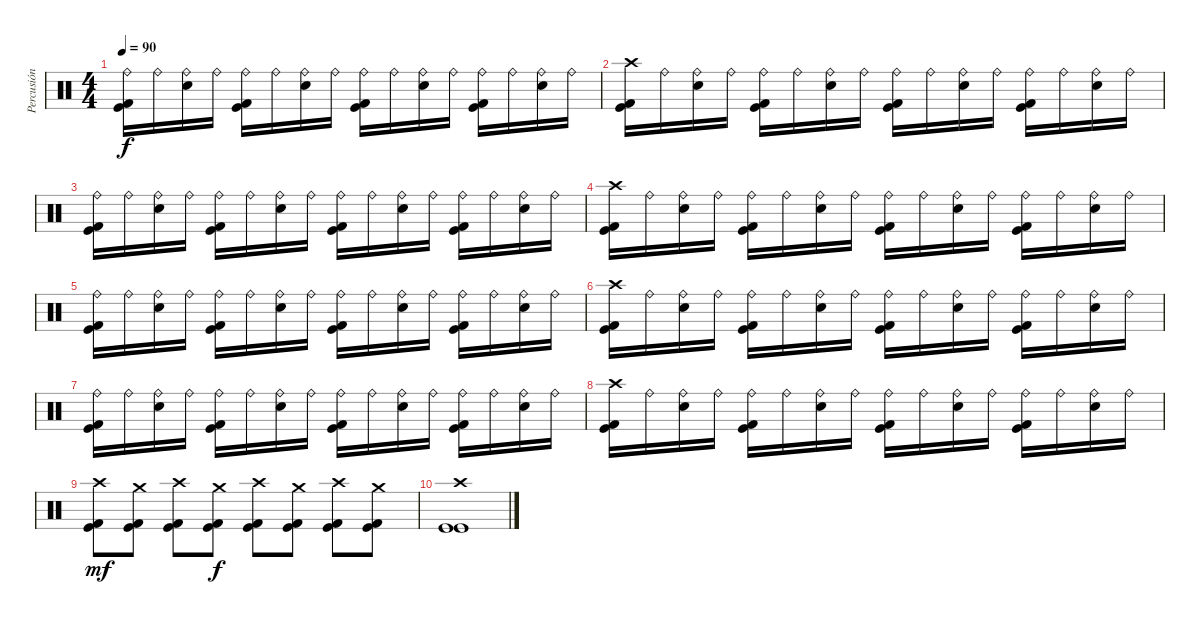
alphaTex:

\track ("Percusión" "Percusión") {instrument percussion}
\staff {score}
\articulation defaults
\ts (4 4)
\tempo 90
\clef neutral
\ks c
("Kick (hit) 2" "Ride (bell)" "Kick (hit)").16{dy f} "Ride (bell)".16 ("Snare (hit) 2" "Ride (bell)").16 "Ride (bell)".16 ("Kick (hit) 2" "Ride (bell)" "Kick (hit)").16 "Ride (bell)".16 ("Snare (hit) 2" "Ride (bell)").16 "Ride (bell)".16 ("Kick (hit) 2" "Ride (bell)" "Kick (hit)").16 "Ride (bell)".16 ("Snare (hit) 2" "Ride (bell)").16 "Ride (bell)".16 ("Kick (hit) 2" "Ride (bell)" "Kick (hit)").16 "Ride (bell)".16 ("Snare (hit) 2" "Ride (bell)").16 "Ride (bell)".16 |
("Kick (hit) 2" "Crash high (hit)" "Kick (hit)").16 "Ride (bell)".16 ("Snare (hit) 2" "Ride (bell)").16 "Ride (bell)".16 ("Kick (hit) 2" "Ride (bell)" "Kick (hit)").16 "Ride (bell)".16 ("Snare (hit) 2" "Ride (bell)").16 "Ride (bell)".16 ("Kick (hit) 2" "Ride (bell)" "Kick (hit)").16 "Ride (bell)".16 ("Snare (hit) 2" "Ride (bell)").16 "Ride (bell)".16 ("Kick (hit) 2" "Ride (bell)" "Kick (hit)").16 "Ride (bell)".16 ("Snare (hit) 2" "Ride (bell)").16 "Ride (bell)".16 |
("Kick (hit) 2" "Ride (bell)" "Kick (hit)").16 "Ride (bell)".16 ("Snare (hit) 2" "Ride (bell)").16 "Ride (bell)".16 ("Kick (hit) 2" "Ride (bell)" "Kick (hit)").16 "Ride (bell)".16 ("Snare (hit) 2" "Ride (bell)").16 "Ride (bell)".16 ("Kick (hit) 2" "Ride (bell)" "Kick (hit)").16 "Ride (bell)".16 ("Snare (hit) 2" "Ride (bell)").16 "Ride (bell)".16 ("Kick (hit) 2" "Ride (bell)" "Kick (hit)").16 "Ride (bell)".16 ("Snare (hit) 2" "Ride (bell)").16 "Ride (bell)".16 |
("Kick (hit) 2" "Crash high (hit)" "Kick (hit)").16 "Ride (bell)".16 ("Snare (hit) 2" "Ride (bell)").16 "Ride (bell)".16 ("Kick (hit) 2" "Ride (bell)" "Kick (hit)").16 "Ride (bell)".16 ("Snare (hit) 2" "Ride (bell)").16 "Ride (bell)".16 ("Kick (hit) 2" "Ride (bell)" "Kick (hit)").16 "Ride (bell)".16 ("Snare (hit) 2" "Ride (bell)").16 "Ride (bell)".16 ("Kick (hit) 2" "Ride (bell)" "Kick (hit)").16 "Ride (bell)".16 ("Snare (hit) 2" "Ride (bell)").16 "Ride (bell)".16 |
("Kick (hit) 2" "Ride (bell)" "Kick (hit)").16 "Ride (bell)".16 ("Snare (hit) 2" "Ride (bell)").16 "Ride (bell)".16 ("Kick (hit) 2" "Ride (bell)" "Kick (hit)").16 "Ride (bell)".16 ("Snare (hit) 2" "Ride (bell)").16 "Ride (bell)".16 ("Kick (hit) 2" "Ride (bell)" "Kick (hit)").16 "Ride (bell)".16 ("Snare (hit) 2" "Ride (bell)").16 "Ride (bell)".16 ("Kick (hit) 2" "Ride (bell)" "Kick (hit)").16 "Ride (bell)".16 ("Snare (hit) 2" "Ride (bell)").16 "Ride (bell)".16 |
("Kick (hit) 2" "Crash high (hit)" "Kick (hit)").16 "Ride (bell)".16 ("Snare (hit) 2" "Ride (bell)").16 "Ride (bell)".16 ("Kick (hit) 2" "Ride (bell)" "Kick (hit)").16 "Ride (bell)".16 ("Snare (hit) 2" "Ride (bell)").16 "Ride (bell)".16 ("Kick (hit) 2" "Ride (bell)" "Kick (hit)").16 "Ride (bell)".16 ("Snare (hit) 2" "Ride (bell)").16 "Ride (bell)".16 ("Kick (hit) 2" "Ride (bell)" "Kick (hit)").16 "Ride (bell)".16 ("Snare (hit) 2" "Ride (bell)").16 "Ride (bell)".16 |
("Kick (hit) 2" "Ride (bell)" "Kick (hit)").16 "Ride (bell)".16 ("Snare (hit) 2" "Ride (bell)").16 "Ride (bell)".16 ("Kick (hit) 2" "Ride (bell)" "Kick (hit)").16 "Ride (bell)".16 ("Snare (hit) 2" "Ride (bell)").16 "Ride (bell)".16 ("Kick (hit) 2" "Ride (bell)" "Kick (hit)").16 "Ride (bell)".16 ("Snare (hit) 2" "Ride (bell)").16 "Ride (bell)".16 ("Kick (hit) 2" "Ride (bell)" "Kick (hit)").16 "Ride (bell)".16 ("Snare (hit) 2" "Ride (bell)").16 "Ride (bell)".16 |
("Kick (hit) 2" "Crash high (hit)" "Kick (hit)").16 "Ride (bell)".16 ("Snare (hit) 2" "Ride (bell)").16 "Ride (bell)".16 ("Kick (hit) 2" "Ride (bell)" "Kick (hit)").16 "Ride (bell)".16 ("Snare (hit) 2" "Ride (bell)").16 "Ride (bell)".16 ("Kick (hit) 2" "Ride (bell)" "Kick (hit)").16 "Ride (bell)".16 ("Snare (hit) 2" "Ride (bell)").16 "Ride (bell)".16 ("Kick (hit) 2" "Ride (bell)" "Kick (hit)").16 "Ride (bell)".16 ("Snare (hit) 2" "Ride (bell)").16 "Ride (bell)".16 |
("Kick (hit) 2" "Crash high (hit)" "Kick (hit)").8{dy mf} ("Kick (hit) 2" "Crash medium (hit)" "Kick (hit)").8 ("Kick (hit) 2" "Crash high (hit)" "Kick (hit)").8 ("Kick (hit) 2" "Crash medium (hit)" "Kick (hit)").8{dy f} ("Kick (hit) 2" "Crash high (hit)" "Kick (hit)").8 ("Kick (hit) 2" "Crash medium (hit)" "Kick (hit)").8 ("Kick (hit) 2" "Crash high (hit)" "Kick (hit)").8 ("Kick (hit) 2" "Crash medium (hit)" "Kick (hit)").8 |
("Kick (hit)" "Crash high (hit)" "Kick (hit)").1
